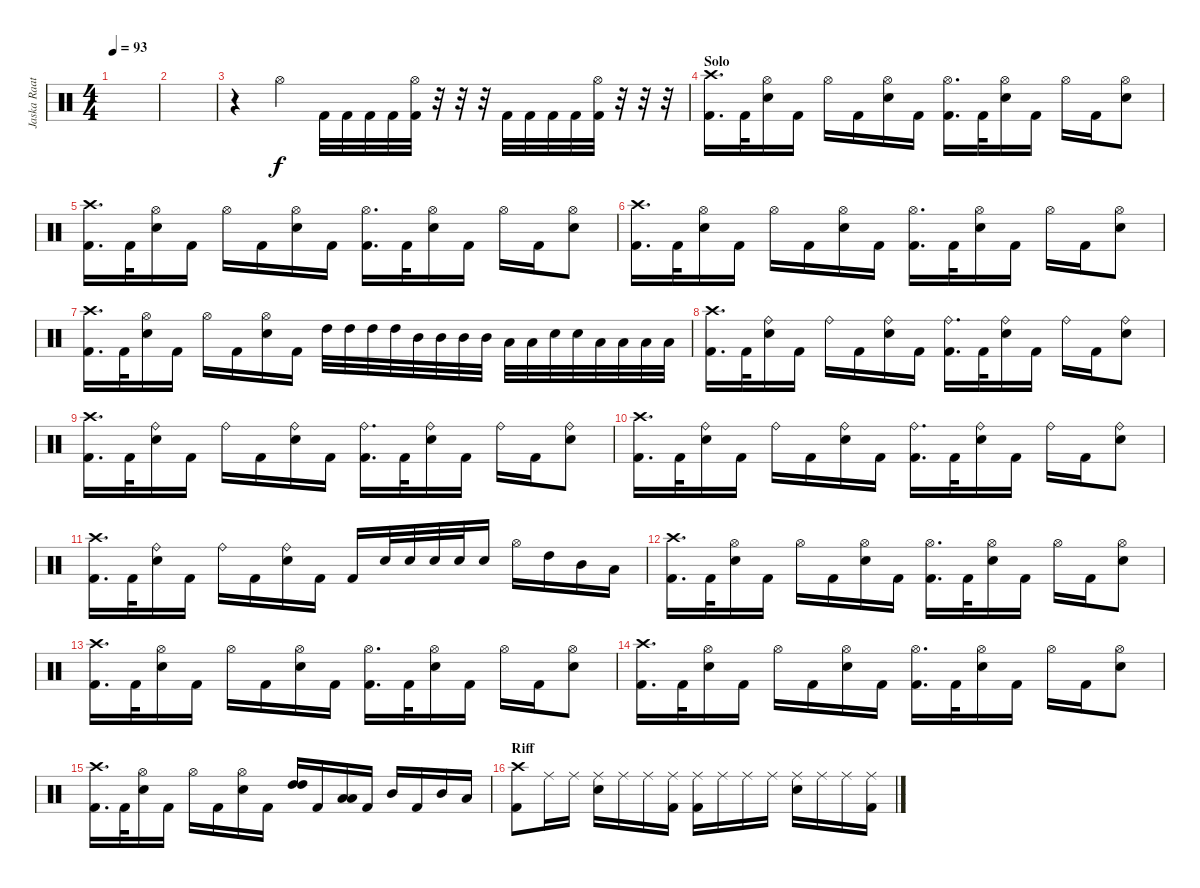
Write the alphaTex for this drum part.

\track ("Jaska Raatikainen" "Jaska Raat") {instrument percussion}
\staff {score}
\articulation defaults
\ts (4 4)
\tempo 93
\clef neutral
\ks c
|
|
r.4 "Hi-Hat (open)".4 "Kick (hit) 2".32 "Kick (hit) 2".32 "Kick (hit) 2".32 "Kick (hit) 2".32 ("Hi-Hat (open)" "Kick (hit) 2").32 r.32 r.32 r.32 "Kick (hit) 2".32 "Kick (hit) 2".32 "Kick (hit) 2".32 "Kick (hit) 2".32 ("Hi-Hat (open)" "Kick (hit) 2").32 r.32 r.32 r.32 |
\section ("" "Solo")
("Crash high (hit)" "Kick (hit) 2").16{d} "Kick (hit) 2".32 ("Hi-Hat (open)" "Snare (hit) 2").16 "Kick (hit) 2".16 "Hi-Hat (open)".16 "Kick (hit) 2".16 ("Hi-Hat (open)" "Snare (hit) 2").16 "Kick (hit) 2".16 ("Hi-Hat (open)" "Kick (hit) 2").16{d} "Kick (hit) 2".32 ("Hi-Hat (open)" "Snare (hit) 2").16 "Kick (hit) 2".16 "Hi-Hat (open)".16 "Kick (hit) 2".16 ("Hi-Hat (open)" "Snare (hit) 2").8 |
("Crash high (hit)" "Kick (hit) 2").16{d} "Kick (hit) 2".32 ("Hi-Hat (open)" "Snare (hit) 2").16 "Kick (hit) 2".16 "Hi-Hat (open)".16 "Kick (hit) 2".16 ("Hi-Hat (open)" "Snare (hit) 2").16 "Kick (hit) 2".16 ("Hi-Hat (open)" "Kick (hit) 2").16{d} "Kick (hit) 2".32 ("Hi-Hat (open)" "Snare (hit) 2").16 "Kick (hit) 2".16 "Hi-Hat (open)".16 "Kick (hit) 2".16 ("Hi-Hat (open)" "Snare (hit) 2").8 |
("Crash high (hit)" "Kick (hit) 2").16{d} "Kick (hit) 2".32 ("Hi-Hat (open)" "Snare (hit) 2").16 "Kick (hit) 2".16 "Hi-Hat (open)".16 "Kick (hit) 2".16 ("Hi-Hat (open)" "Snare (hit) 2").16 "Kick (hit) 2".16 ("Hi-Hat (open)" "Kick (hit) 2").16{d} "Kick (hit) 2".32 ("Hi-Hat (open)" "Snare (hit) 2").16 "Kick (hit) 2".16 "Hi-Hat (open)".16 "Kick (hit) 2".16 ("Hi-Hat (open)" "Snare (hit) 2").8 |
("Crash high (hit)" "Kick (hit) 2").16{d} "Kick (hit) 2".32 ("Hi-Hat (open)" "Snare (hit) 2").16 "Kick (hit) 2".16 "Hi-Hat (open)".16 "Kick (hit) 2".16 ("Hi-Hat (open)" "Snare (hit) 2").16 "Kick (hit) 2".16 "High Tom (hit)".32 "High Tom (hit)".32 "High Tom (hit)".32 "High Tom (hit)".32 "Mid Tom (hit)".32 "Mid Tom (hit)".32 "Mid Tom (hit)".32 "Mid Tom (hit)".32 "Low Tom (hit)".32 "Low Tom (hit)".32 "Snare (hit) 2".32 "Snare (hit) 2".32 "Low Tom (hit)".32 "Low Tom (hit)".32 "Low Tom (hit)".32 "Low Tom (hit)".32 |
("Crash high (hit)" "Kick (hit) 2").16{d} "Kick (hit) 2".32 ("Ride (bell)" "Snare (hit) 2").16 "Kick (hit) 2".16 "Ride (bell)".16 "Kick (hit) 2".16 ("Ride (bell)" "Snare (hit) 2").16 "Kick (hit) 2".16 ("Ride (bell)" "Kick (hit) 2").16{d} "Kick (hit) 2".32 ("Ride (bell)" "Snare (hit) 2").16 "Kick (hit) 2".16 "Ride (bell)".16 "Kick (hit) 2".16 ("Ride (bell)" "Snare (hit) 2").8 |
("Crash high (hit)" "Kick (hit) 2").16{d} "Kick (hit) 2".32 ("Ride (bell)" "Snare (hit) 2").16 "Kick (hit) 2".16 "Ride (bell)".16 "Kick (hit) 2".16 ("Ride (bell)" "Snare (hit) 2").16 "Kick (hit) 2".16 ("Ride (bell)" "Kick (hit) 2").16{d} "Kick (hit) 2".32 ("Ride (bell)" "Snare (hit) 2").16 "Kick (hit) 2".16 "Ride (bell)".16 "Kick (hit) 2".16 ("Ride (bell)" "Snare (hit) 2").8 |
("Crash high (hit)" "Kick (hit) 2").16{d} "Kick (hit) 2".32 ("Ride (bell)" "Snare (hit) 2").16 "Kick (hit) 2".16 "Ride (bell)".16 "Kick (hit) 2".16 ("Ride (bell)" "Snare (hit) 2").16 "Kick (hit) 2".16 ("Ride (bell)" "Kick (hit) 2").16{d} "Kick (hit) 2".32 ("Ride (bell)" "Snare (hit) 2").16 "Kick (hit) 2".16 "Ride (bell)".16 "Kick (hit) 2".16 ("Ride (bell)" "Snare (hit) 2").8 |
("Crash high (hit)" "Kick (hit) 2").16{d} "Kick (hit) 2".32 ("Ride (bell)" "Snare (hit) 2").16 "Kick (hit) 2".16 "Ride (bell)".16 "Kick (hit) 2".16 ("Ride (bell)" "Snare (hit) 2").16 "Kick (hit) 2".16 "Kick (hit) 2".16 "Snare (hit) 2".32 "Snare (hit) 2".32 "Snare (hit) 2".32 "Snare (hit) 2".32 "Snare (hit) 2".16 "Hi-Hat (open)".16 "High Tom (hit)".16 "Mid Tom (hit)".16 "Low Tom (hit)".16 |
("Crash high (hit)" "Kick (hit) 2").16{d} "Kick (hit) 2".32 ("Hi-Hat (open)" "Snare (hit) 2").16 "Kick (hit) 2".16 "Hi-Hat (open)".16 "Kick (hit) 2".16 ("Hi-Hat (open)" "Snare (hit) 2").16 "Kick (hit) 2".16 ("Hi-Hat (open)" "Kick (hit) 2").16{d} "Kick (hit) 2".32 ("Hi-Hat (open)" "Snare (hit) 2").16 "Kick (hit) 2".16 "Hi-Hat (open)".16 "Kick (hit) 2".16 ("Hi-Hat (open)" "Snare (hit) 2").8 |
("Crash high (hit)" "Kick (hit) 2").16{d} "Kick (hit) 2".32 ("Hi-Hat (open)" "Snare (hit) 2").16 "Kick (hit) 2".16 "Hi-Hat (open)".16 "Kick (hit) 2".16 ("Hi-Hat (open)" "Snare (hit) 2").16 "Kick (hit) 2".16 ("Hi-Hat (open)" "Kick (hit) 2").16{d} "Kick (hit) 2".32 ("Hi-Hat (open)" "Snare (hit) 2").16 "Kick (hit) 2".16 "Hi-Hat (open)".16 "Kick (hit) 2".16 ("Hi-Hat (open)" "Snare (hit) 2").8 |
("Crash high (hit)" "Kick (hit) 2").16{d} "Kick (hit) 2".32 ("Hi-Hat (open)" "Snare (hit) 2").16 "Kick (hit) 2".16 "Hi-Hat (open)".16 "Kick (hit) 2".16 ("Hi-Hat (open)" "Snare (hit) 2").16 "Kick (hit) 2".16 ("Hi-Hat (open)" "Kick (hit) 2").16{d} "Kick (hit) 2".32 ("Hi-Hat (open)" "Snare (hit) 2").16 "Kick (hit) 2".16 "Hi-Hat (open)".16 "Kick (hit) 2".16 ("Hi-Hat (open)" "Snare (hit) 2").8 |
("Crash high (hit)" "Kick (hit) 2").16{d} "Kick (hit) 2".32 ("Hi-Hat (open)" "Snare (hit) 2").16 "Kick (hit) 2".16 "Hi-Hat (open)".16 "Kick (hit) 2".16 ("Hi-Hat (open)" "Snare (hit) 2").16 "Kick (hit) 2".16 ("High Tom (hit)" "High Tom (hit)").16 "Kick (hit) 2".16 ("Low Tom (hit)" "Low Tom (hit)").16 "Kick (hit) 2".16 "Mid Tom (hit)".16 "Kick (hit) 2".16 "Mid Tom (hit)".16 "Low Tom (hit)".16 |
\section ("" "Riff")
("Crash high (hit)" "Kick (hit) 2").8 "Ride (middle)".16 "Ride (middle)".16 ("Ride (middle)" "Snare (hit) 2").16 "Ride (middle)".16 "Ride (middle)".16 ("Ride (middle)" "Kick (hit) 2").16 ("Ride (middle)" "Kick (hit) 2").16 "Ride (middle)".16 "Ride (middle)".16 "Ride (middle)".16 ("Ride (middle)" "Snare (hit) 2").16 "Ride (middle)".16 "Ride (middle)".16 ("Ride (middle)" "Kick (hit) 2").16
